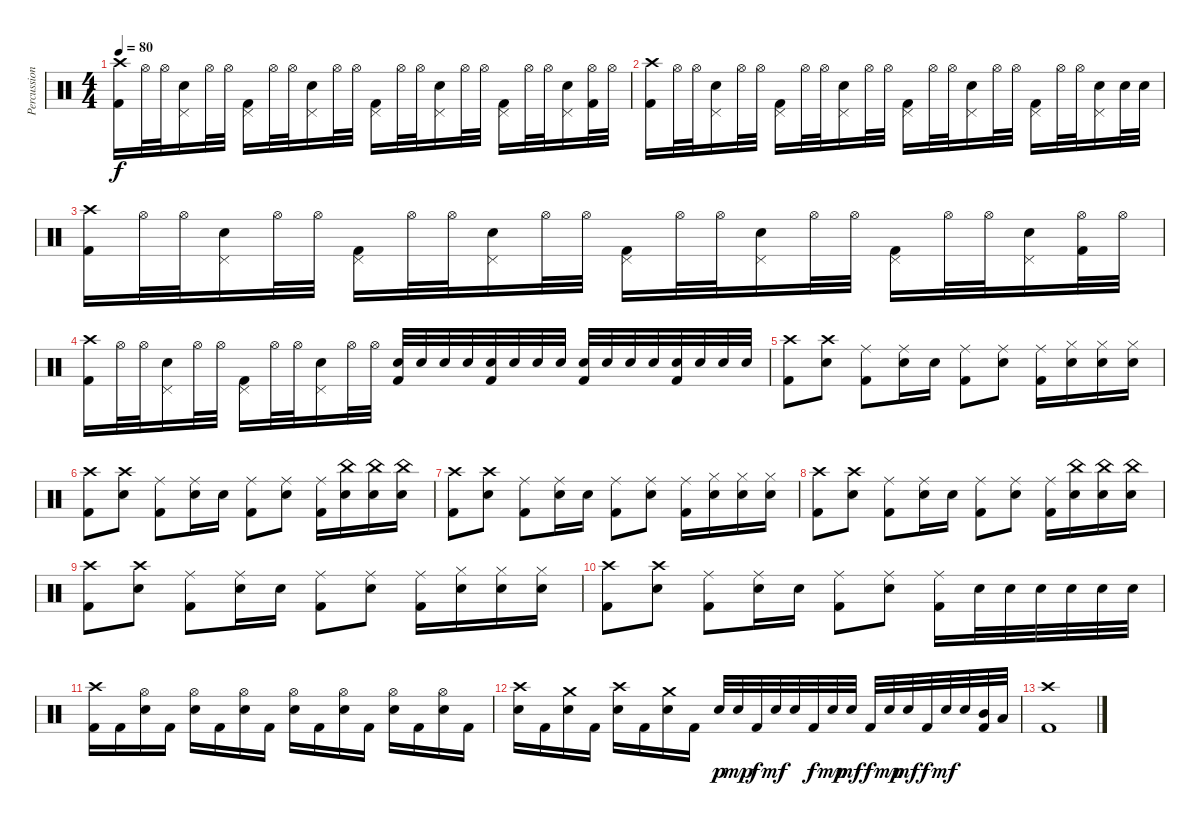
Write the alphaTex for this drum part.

\track ("Percussion" "Percussion") {instrument percussion}
\staff {score}
\articulation defaults
\ts (4 4)
\tempo 80
\clef neutral
\ks c
("Kick (hit) 2" "Crash high (hit)").16{dy f} "Hi-Hat (open)".32 "Hi-Hat (open)".32 ("Electric Snare (hit)" "Pedal Hi-Hat (hit)").16 "Hi-Hat (open)".32 "Hi-Hat (open)".32 ("Kick (hit) 2" "Pedal Hi-Hat (hit)").16 "Hi-Hat (open)".32 "Hi-Hat (open)".32 ("Electric Snare (hit)" "Pedal Hi-Hat (hit)").16 "Hi-Hat (open)".32 "Hi-Hat (open)".32 ("Kick (hit) 2" "Pedal Hi-Hat (hit)").16 "Hi-Hat (open)".32 "Hi-Hat (open)".32 ("Electric Snare (hit)" "Pedal Hi-Hat (hit)").16 "Hi-Hat (open)".32 "Hi-Hat (open)".32 ("Kick (hit) 2" "Pedal Hi-Hat (hit)").16 "Hi-Hat (open)".32 "Hi-Hat (open)".32 ("Electric Snare (hit)" "Pedal Hi-Hat (hit)").16 ("Hi-Hat (open)" "Kick (hit) 2").32 "Hi-Hat (open)".32 |
("Kick (hit) 2" "Crash high (hit)").16 "Hi-Hat (open)".32 "Hi-Hat (open)".32 ("Electric Snare (hit)" "Pedal Hi-Hat (hit)").16 "Hi-Hat (open)".32 "Hi-Hat (open)".32 ("Kick (hit) 2" "Pedal Hi-Hat (hit)").16 "Hi-Hat (open)".32 "Hi-Hat (open)".32 ("Electric Snare (hit)" "Pedal Hi-Hat (hit)").16 "Hi-Hat (open)".32 "Hi-Hat (open)".32 ("Kick (hit) 2" "Pedal Hi-Hat (hit)").16 "Hi-Hat (open)".32 "Hi-Hat (open)".32 ("Electric Snare (hit)" "Pedal Hi-Hat (hit)").16 "Hi-Hat (open)".32 "Hi-Hat (open)".32 ("Kick (hit) 2" "Pedal Hi-Hat (hit)").16 "Hi-Hat (open)".32 "Hi-Hat (open)".32 ("Electric Snare (hit)" "Pedal Hi-Hat (hit)").16 "Electric Snare (hit)".32 "Electric Snare (hit)".32 |
("Kick (hit) 2" "Crash high (hit)").16 "Hi-Hat (open)".32 "Hi-Hat (open)".32 ("Electric Snare (hit)" "Pedal Hi-Hat (hit)").16 "Hi-Hat (open)".32 "Hi-Hat (open)".32 ("Kick (hit) 2" "Pedal Hi-Hat (hit)").16 "Hi-Hat (open)".32 "Hi-Hat (open)".32 ("Electric Snare (hit)" "Pedal Hi-Hat (hit)").16 "Hi-Hat (open)".32 "Hi-Hat (open)".32 ("Kick (hit) 2" "Pedal Hi-Hat (hit)").16 "Hi-Hat (open)".32 "Hi-Hat (open)".32 ("Electric Snare (hit)" "Pedal Hi-Hat (hit)").16 "Hi-Hat (open)".32 "Hi-Hat (open)".32 ("Kick (hit) 2" "Pedal Hi-Hat (hit)").16 "Hi-Hat (open)".32 "Hi-Hat (open)".32 ("Electric Snare (hit)" "Pedal Hi-Hat (hit)").16 ("Hi-Hat (open)" "Kick (hit) 2").32 "Hi-Hat (open)".32 |
("Kick (hit) 2" "Crash high (hit)").16 "Hi-Hat (open)".32 "Hi-Hat (open)".32 ("Electric Snare (hit)" "Pedal Hi-Hat (hit)").16 "Hi-Hat (open)".32 "Hi-Hat (open)".32 ("Kick (hit) 2" "Pedal Hi-Hat (hit)").16 "Hi-Hat (open)".32 "Hi-Hat (open)".32 ("Electric Snare (hit)" "Pedal Hi-Hat (hit)").16 "Hi-Hat (open)".32 "Hi-Hat (open)".32 ("Electric Snare (hit)" "Kick (hit) 2").32 "Electric Snare (hit)".32 "Electric Snare (hit)".32 "Electric Snare (hit)".32 ("Electric Snare (hit)" "Kick (hit) 2").32 "Electric Snare (hit)".32 "Electric Snare (hit)".32 "Electric Snare (hit)".32 ("Electric Snare (hit)" "Kick (hit) 2").32 "Electric Snare (hit)".32 "Electric Snare (hit)".32 "Electric Snare (hit)".32 ("Electric Snare (hit)" "Kick (hit) 2").32 "Electric Snare (hit)".32 "Electric Snare (hit)".32 "Electric Snare (hit)".32 |
("Kick (hit) 2" "Crash high (hit)").8 ("Electric Snare (hit)" "Crash high (hit)").8 ("Kick (hit) 2" "Ride (middle)").8 ("Electric Snare (hit)" "Ride (middle)").16 "Electric Snare (hit)".16 ("Kick (hit) 2" "Ride (middle)").8 ("Electric Snare (hit)" "Ride (middle)").8 ("Kick (hit) 2" "Ride (middle)").16 ("Electric Snare (hit)" "Hi-Hat (closed)").16 ("Electric Snare (hit)" "Hi-Hat (closed)").16 ("Electric Snare (hit)" "Hi-Hat (closed)").16 |
("Kick (hit) 2" "Crash high (hit)").8 ("Electric Snare (hit)" "Crash high (hit)").8 ("Kick (hit) 2" "Ride (middle)").8 ("Electric Snare (hit)" "Ride (middle)").16 "Electric Snare (hit)".16 ("Kick (hit) 2" "Ride (middle)").8 ("Electric Snare (hit)" "Ride (middle)").8 ("Kick (hit) 2" "Ride (middle)").16 ("Electric Snare (hit)" "China (hit)").16 ("Electric Snare (hit)" "China (hit)").16 ("Electric Snare (hit)" "China (hit)").16 |
("Kick (hit) 2" "Crash high (hit)").8 ("Electric Snare (hit)" "Crash high (hit)").8 ("Kick (hit) 2" "Ride (middle)").8 ("Electric Snare (hit)" "Ride (middle)").16 "Electric Snare (hit)".16 ("Kick (hit) 2" "Ride (middle)").8 ("Electric Snare (hit)" "Ride (middle)").8 ("Kick (hit) 2" "Ride (middle)").16 ("Electric Snare (hit)" "Hi-Hat (closed)").16 ("Electric Snare (hit)" "Hi-Hat (closed)").16 ("Electric Snare (hit)" "Hi-Hat (closed)").16 |
("Kick (hit) 2" "Crash high (hit)").8 ("Electric Snare (hit)" "Crash high (hit)").8 ("Kick (hit) 2" "Ride (middle)").8 ("Electric Snare (hit)" "Ride (middle)").16 "Electric Snare (hit)".16 ("Kick (hit) 2" "Ride (middle)").8 ("Electric Snare (hit)" "Ride (middle)").8 ("Kick (hit) 2" "Ride (middle)").16 ("Electric Snare (hit)" "China (hit)").16 ("Electric Snare (hit)" "China (hit)").16 ("Electric Snare (hit)" "China (hit)").16 |
("Kick (hit) 2" "Crash high (hit)").8 ("Electric Snare (hit)" "Crash high (hit)").8 ("Kick (hit) 2" "Ride (middle)").8 ("Electric Snare (hit)" "Ride (middle)").16 "Electric Snare (hit)".16 ("Kick (hit) 2" "Ride (middle)").8 ("Electric Snare (hit)" "Ride (middle)").8 ("Kick (hit) 2" "Ride (middle)").16 ("Electric Snare (hit)" "Hi-Hat (closed)").16 ("Electric Snare (hit)" "Hi-Hat (closed)").16 ("Electric Snare (hit)" "Hi-Hat (closed)").16 |
("Kick (hit) 2" "Crash high (hit)").8 ("Electric Snare (hit)" "Crash high (hit)").8 ("Kick (hit) 2" "Ride (middle)").8 ("Electric Snare (hit)" "Ride (middle)").16 "Electric Snare (hit)".16 ("Kick (hit) 2" "Ride (middle)").8 ("Electric Snare (hit)" "Ride (middle)").8 ("Kick (hit) 2" "Ride (middle)").16 "Electric Snare (hit)".32 "Electric Snare (hit)".32 "Electric Snare (hit)".32 "Electric Snare (hit)".32 "Electric Snare (hit)".32 "Electric Snare (hit)".32 |
("Kick (hit) 2" "Crash high (hit)").16 "Kick (hit) 2".16 ("Electric Snare (hit)" "Hi-Hat (open)").16 "Kick (hit) 2".16 ("Electric Snare (hit)" "Hi-Hat (open)").16 "Kick (hit) 2".16 ("Electric Snare (hit)" "Hi-Hat (open)").16 "Kick (hit) 2".16 ("Electric Snare (hit)" "Hi-Hat (open)").16 "Kick (hit) 2".16 ("Electric Snare (hit)" "Hi-Hat (open)").16 "Kick (hit) 2".16 ("Electric Snare (hit)" "Hi-Hat (open)").16 "Kick (hit) 2".16 ("Electric Snare (hit)" "Hi-Hat (open)").16 "Kick (hit) 2".16 |
("Electric Snare (hit)" "Crash high (hit)").16 "Kick (hit) 2".16 ("Electric Snare (hit)" "Crash medium (hit)").16 "Kick (hit) 2".16 ("Electric Snare (hit)" "Crash high (hit)").16 "Kick (hit) 2".16 ("Electric Snare (hit)" "Crash medium (hit)").16 "Kick (hit) 2".16 "Electric Snare (hit)".32{dy p} "Electric Snare (hit)".32{dy mp} "Kick (hit) 2".32{dy f} "Electric Snare (hit)".32{dy mf} "Electric Snare (hit)".32 "Kick (hit) 2".32{dy f} "Electric Snare (hit)".32{dy mp} "Electric Snare (hit)".32{dy mf} "Kick (hit) 2".32{dy f} "Electric Snare (hit)".32{dy mp} "Electric Snare (hit)".32{dy mf} "Kick (hit) 2".32{dy f} "Electric Snare (hit)".32{dy mf} "Electric Snare (hit)".32 ("Mid Tom (hit)" "Kick (hit) 2").32 "Low Tom (hit)".32 |
("Kick (hit) 2" "Crash high (hit)").1
